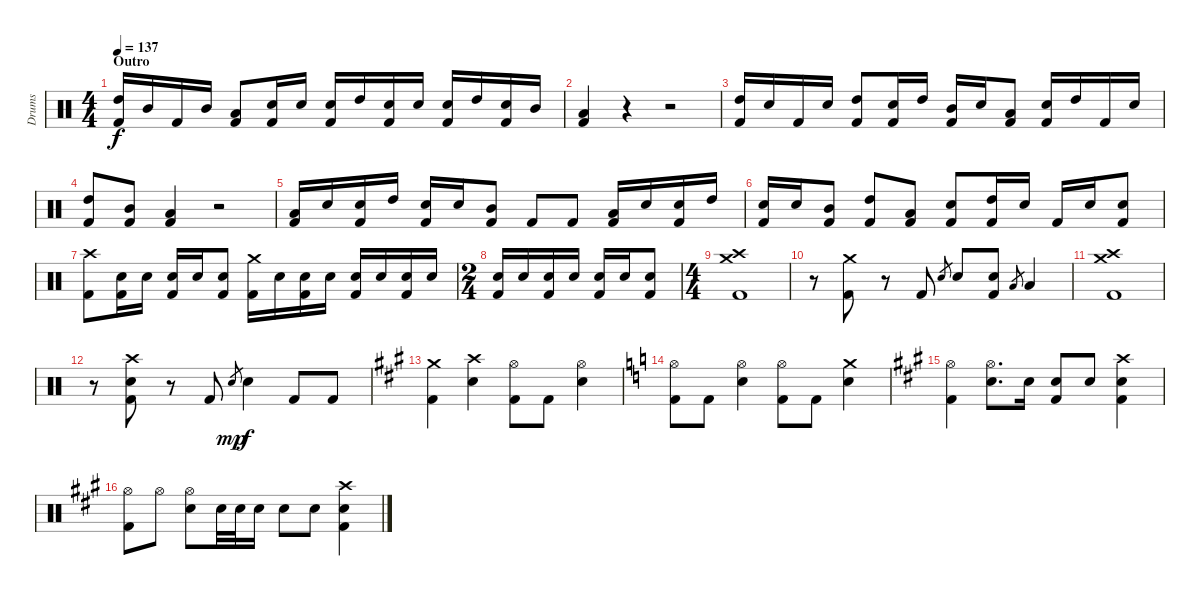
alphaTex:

\track ("Drums" "Drums") {instrument percussion}
\staff {score}
\articulation defaults
\ts (4 4)
\section ("" "Outro")
\tempo 137
\clef neutral
\ks c
("High Tom (hit)" "Kick (hit) 2").16{dy f} "Mid Tom (hit)".16 "Kick (hit) 2".16 "Mid Tom (hit)".16 ("Low Tom (hit)" "Kick (hit) 2").8 ("Snare (hit) 2" "Kick (hit) 2").16 "Snare (hit) 2".16 ("Snare (hit) 2" "Kick (hit) 2").16 "High Tom (hit)".16 ("Snare (hit) 2" "Kick (hit) 2").16 "Snare (hit) 2".16 ("Snare (hit) 2" "Kick (hit) 2").16 "High Tom (hit)".16 ("Snare (hit) 2" "Kick (hit) 2").16 "Mid Tom (hit)".16 |
("Low Tom (hit)" "Kick (hit) 2").4 r.4 r.2 |
("High Tom (hit)" "Kick (hit) 2").16 "Snare (hit) 2".16 "Kick (hit) 2".16 "Snare (hit) 2".16 ("High Tom (hit)" "Kick (hit) 2").8 ("Snare (hit) 2" "Kick (hit) 2").16 "High Tom (hit)".16 ("Mid Tom (hit)" "Kick (hit) 2").16 "Snare (hit) 2".16 ("Low Tom (hit)" "Kick (hit) 2").8 ("Snare (hit) 2" "Kick (hit) 2").16 "High Tom (hit)".16 "Kick (hit) 2".16 "Snare (hit) 2".16 |
("High Tom (hit)" "Kick (hit) 2").8 ("Mid Tom (hit)" "Kick (hit) 2").8 ("Low Tom (hit)" "Kick (hit) 2").4 r.2 |
("Low Tom (hit)" "Kick (hit) 2").16 "Snare (hit) 2".16 ("Snare (hit) 2" "Kick (hit) 2").16 "High Tom (hit)".16 ("Snare (hit) 2" "Kick (hit) 2").16 "Snare (hit) 2".16 ("Mid Tom (hit)" "Kick (hit) 2").8 "Kick (hit) 2".8 "Kick (hit) 2".8 ("Low Tom (hit)" "Kick (hit) 2").16 "Snare (hit) 2".16 ("Snare (hit) 2" "Kick (hit) 2").16 "High Tom (hit)".16 |
("Snare (hit) 2" "Kick (hit) 2").16 "Snare (hit) 2".16 ("Mid Tom (hit)" "Kick (hit) 2").8 ("High Tom (hit)" "Kick (hit) 2").8 ("Low Tom (hit)" "Kick (hit) 2").8 ("Snare (hit) 2" "Kick (hit) 2").8 ("High Tom (hit)" "Kick (hit) 2").16 "Snare (hit) 2".16 "Kick (hit) 2".16 "Snare (hit) 2".16 ("Snare (hit) 2" "Kick (hit) 2").8 |
("Crash high (hit)" "Kick (hit) 2").8 ("Snare (hit) 2" "Kick (hit) 2").16 "Snare (hit) 2".16 ("Snare (hit) 2" "Kick (hit) 2").16 "Snare (hit) 2".16 ("Snare (hit) 2" "Kick (hit) 2").8 ("Crash medium (hit)" "Kick (hit) 2").16 "Snare (hit) 2".16 ("Snare (hit) 2" "Kick (hit) 2").16 "Snare (hit) 2".16 ("Snare (hit) 2" "Kick (hit) 2").16 "Snare (hit) 2".16 ("Snare (hit) 2" "Kick (hit) 2").16 "Snare (hit) 2".16 |
\ts (2 4)
("Snare (hit) 2" "Kick (hit) 2").16 "Snare (hit) 2".16 ("Snare (hit) 2" "Kick (hit) 2").16 "Snare (hit) 2".16 ("Snare (hit) 2" "Kick (hit) 2").16 "Snare (hit) 2".16 ("Snare (hit) 2" "Kick (hit) 2").8 |
\ts (4 4)
("Crash medium (hit)" "Crash high (hit)" "Kick (hit) 2").1 |
r.8 ("Crash medium (hit)" "Kick (hit) 2").8 r.8 "Kick (hit) 2".8 "Snare (hit) 2".8{gr} "Snare (hit) 2".8 ("Snare (hit) 2" "Kick (hit) 2").8 "Low Tom (hit)".8{gr} "Low Tom (hit)".4 |
("Crash medium (hit)" "Crash high (hit)" "Kick (hit) 2").1 |
r.8 ("Crash high (hit)" "Snare (hit) 2" "Kick (hit) 2").8 r.8 "Kick (hit) 2".8 "Snare (hit) 2".8{gr dy mp} "Snare (hit) 2".4{dy f} "Kick (hit) 2".8 "Kick (hit) 2".8 |
\ks a
("Crash medium (hit)" "Kick (hit) 2").4 ("Crash high (hit)" "Snare (hit) 2").4 ("Hi-Hat (open)" "Kick (hit) 2").8 "Kick (hit) 2".8 ("Hi-Hat (open)" "Snare (hit) 2").4 |
\ks c
("Hi-Hat (open)" "Kick (hit) 2").8 "Kick (hit) 2".8 ("Hi-Hat (open)" "Snare (hit) 2").4 ("Hi-Hat (open)" "Kick (hit) 2").8 "Kick (hit) 2".8 ("Crash medium (hit)" "Snare (hit) 2").4 |
\ks a
("Hi-Hat (open)" "Kick (hit) 2").4 ("Hi-Hat (open)" "Snare (hit) 2").8{d} "Snare (hit) 2".16 ("Snare (hit) 2" "Kick (hit) 2").8 "Snare (hit) 2".8 ("Crash high (hit)" "Snare (hit) 2" "Kick (hit) 2").4 |
("Hi-Hat (open)" "Kick (hit) 2").8 "Hi-Hat (open)".8 ("Hi-Hat (open)" "Snare (hit) 2").8 "Snare (hit) 2".32 "Snare (hit) 2".32 "Snare (hit) 2".16 "Snare (hit) 2".8 "Snare (hit) 2".8 ("Crash high (hit)" "Snare (hit) 2" "Kick (hit) 2").4
